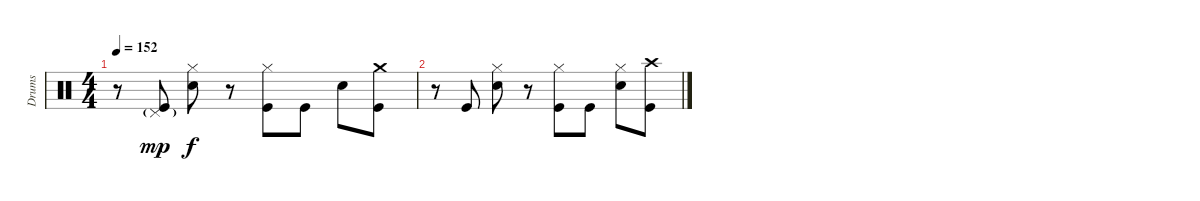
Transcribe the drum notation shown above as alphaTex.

\track ("Drums" "Drums") {instrument percussion}
\staff {score}
\articulation defaults
\ts (4 4)
\tempo 152
\clef neutral
\ks c
r.8{dy f} ("Pedal Hi-Hat (hit)"{g} "Kick (hit)").8{dy mp} ("Hi-Hat (closed)" "Electric Snare (hit)").8{dy f} r.8 ("Hi-Hat (closed)" "Kick (hit)").8 "Kick (hit)".8 "Electric Snare (hit)".8 ("Crash medium (hit)" "Kick (hit)").8 |
r.8 "Kick (hit)".8 ("Hi-Hat (closed)" "Electric Snare (hit)").8 r.8 ("Hi-Hat (closed)" "Kick (hit)").8 "Kick (hit)".8 ("Hi-Hat (closed)" "Electric Snare (hit)").8 ("Crash high (hit)" "Kick (hit)").8
